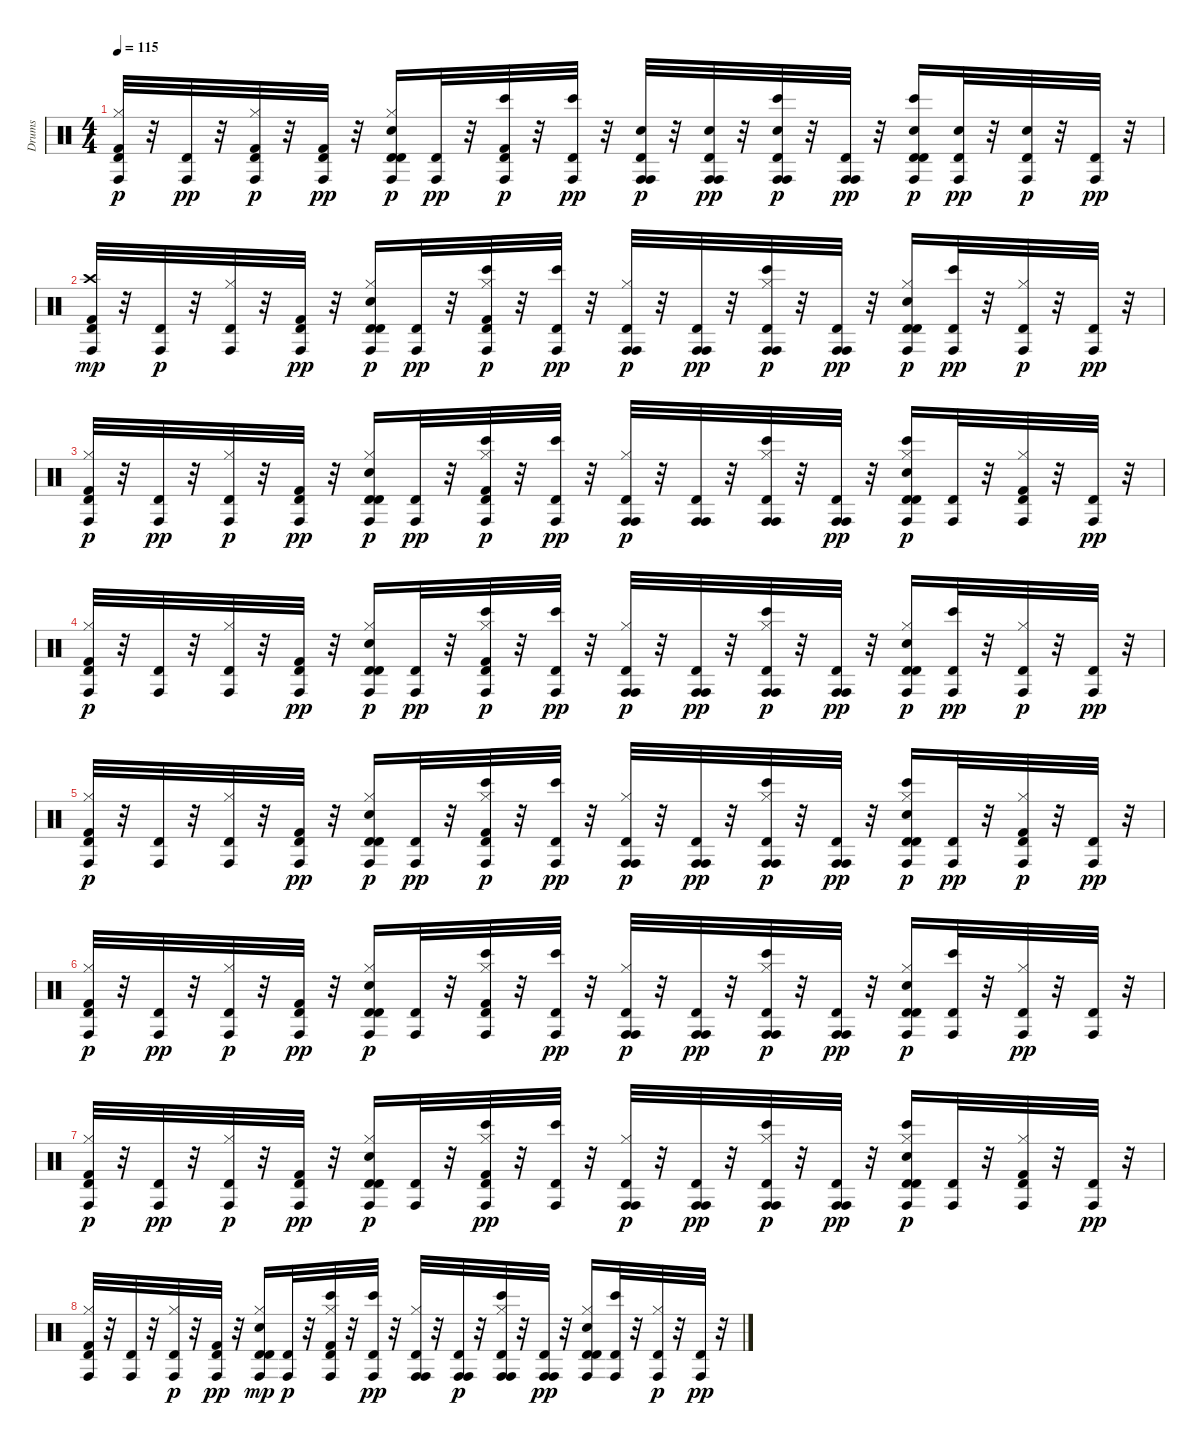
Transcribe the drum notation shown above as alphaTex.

\track ("Drums" "Drums") {instrument percussion}
\staff {score}
\articulation defaults
\ts (4 4)
\tempo 115
\clef neutral
\ks c
("Conga high (hit)" "Hi-Hat (closed)" "Kick (hit) 2" "Timbale high (hit)").32{dy p} r.32 ("Conga high (hit)" "Timbale high (hit)").32{dy pp} r.32 ("Conga high (hit)" "Kick (hit) 2" "Hi-Hat (closed)" "Timbale high (hit)").32{dy p} r.32 ("Conga high (hit)" "Kick (hit) 2" "Timbale high (hit)").32{dy pp} r.32 ("Conga high (hit)" "Timbale high (hit)" "Hi-Hat (closed)" "Electric Snare (hit)" "Timbale high (hit)").16{dy p} ("Conga high (hit)" "Timbale high (hit)").32{dy pp} r.32 ("Conga high (hit)" "Bongo High (hit)" "Kick (hit) 2" "Timbale high (hit)").32{dy p} r.32 ("Conga high (hit)" "Bongo High (hit)" "Timbale high (hit)").32{dy pp} r.32 ("Conga high (hit)" "Conga high (hit)" "Electric Snare (hit)" "Timbale high (hit)").32{dy p} r.32 ("Conga high (hit)" "Conga high (hit)" "Electric Snare (hit)" "Timbale high (hit)").32{dy pp} r.32 ("Conga high (hit)" "Conga high (hit)" "Bongo High (hit)" "Electric Snare (hit)" "Timbale high (hit)").32{dy p} r.32 ("Conga high (hit)" "Conga high (hit)" "Timbale high (hit)").32{dy pp} r.32 ("Conga high (hit)" "Bongo High (hit)" "Timbale high (hit)" "Electric Snare (hit)" "Timbale high (hit)").16{dy p} ("Conga high (hit)" "Electric Snare (hit)" "Timbale high (hit)").32{dy pp} r.32 ("Conga high (hit)" "Electric Snare (hit)" "Timbale high (hit)").32{dy p} r.32 ("Conga high (hit)" "Timbale high (hit)").32{dy pp} r.32 |
("Conga high (hit)" "Crash high (hit)" "Kick (hit) 2" "Timbale high (hit)").32{dy mp} r.32 ("Conga high (hit)" "Timbale high (hit)").32{dy p} r.32 ("Conga high (hit)" "Hi-Hat (closed)" "Timbale high (hit)").32 r.32 ("Conga high (hit)" "Kick (hit) 2" "Timbale high (hit)").32{dy pp} r.32 ("Conga high (hit)" "Timbale high (hit)" "Hi-Hat (closed)" "Electric Snare (hit)" "Timbale high (hit)").16{dy p} ("Conga high (hit)" "Timbale high (hit)").32{dy pp} r.32 ("Conga high (hit)" "Bongo High (hit)" "Hi-Hat (closed)" "Kick (hit) 2" "Timbale high (hit)").32{dy p} r.32 ("Conga high (hit)" "Bongo High (hit)" "Timbale high (hit)").32{dy pp} r.32 ("Conga high (hit)" "Conga high (hit)" "Hi-Hat (closed)" "Timbale high (hit)").32{dy p} r.32 ("Conga high (hit)" "Conga high (hit)" "Timbale high (hit)").32{dy pp} r.32 ("Conga high (hit)" "Conga high (hit)" "Bongo High (hit)" "Hi-Hat (closed)" "Timbale high (hit)").32{dy p} r.32 ("Conga high (hit)" "Conga high (hit)" "Timbale high (hit)").32{dy pp} r.32 ("Conga high (hit)" "Timbale high (hit)" "Hi-Hat (closed)" "Electric Snare (hit)" "Timbale high (hit)").16{dy p} ("Conga high (hit)" "Bongo High (hit)" "Timbale high (hit)").32{dy pp} r.32 ("Conga high (hit)" "Hi-Hat (closed)" "Timbale high (hit)").32{dy p} r.32 ("Conga high (hit)" "Timbale high (hit)").32{dy pp} r.32 |
("Conga high (hit)" "Hi-Hat (closed)" "Kick (hit) 2" "Timbale high (hit)").32{dy p} r.32 ("Conga high (hit)" "Timbale high (hit)").32{dy pp} r.32 ("Conga high (hit)" "Hi-Hat (closed)" "Timbale high (hit)").32{dy p} r.32 ("Conga high (hit)" "Kick (hit) 2" "Timbale high (hit)").32{dy pp} r.32 ("Conga high (hit)" "Timbale high (hit)" "Hi-Hat (closed)" "Electric Snare (hit)" "Timbale high (hit)").16{dy p} ("Conga high (hit)" "Timbale high (hit)").32{dy pp} r.32 ("Conga high (hit)" "Bongo High (hit)" "Hi-Hat (closed)" "Kick (hit) 2" "Timbale high (hit)").32{dy p} r.32 ("Conga high (hit)" "Bongo High (hit)" "Timbale high (hit)").32{dy pp} r.32 ("Conga high (hit)" "Conga high (hit)" "Hi-Hat (closed)" "Timbale high (hit)").32{dy p} r.32 ("Conga high (hit)" "Conga high (hit)" "Timbale high (hit)").32 r.32 ("Conga high (hit)" "Conga high (hit)" "Bongo High (hit)" "Hi-Hat (closed)" "Timbale high (hit)").32 r.32 ("Conga high (hit)" "Conga high (hit)" "Timbale high (hit)").32{dy pp} r.32 ("Conga high (hit)" "Bongo High (hit)" "Timbale high (hit)" "Hi-Hat (closed)" "Electric Snare (hit)" "Timbale high (hit)").16{dy p} ("Conga high (hit)" "Timbale high (hit)").32 r.32 ("Conga high (hit)" "Kick (hit) 2" "Hi-Hat (closed)" "Timbale high (hit)").32 r.32 ("Conga high (hit)" "Timbale high (hit)").32{dy pp} r.32 |
("Conga high (hit)" "Hi-Hat (closed)" "Kick (hit) 2" "Timbale high (hit)").32{dy p} r.32 ("Conga high (hit)" "Timbale high (hit)").32 r.32 ("Conga high (hit)" "Hi-Hat (closed)" "Timbale high (hit)").32 r.32 ("Conga high (hit)" "Kick (hit) 2" "Timbale high (hit)").32{dy pp} r.32 ("Conga high (hit)" "Timbale high (hit)" "Hi-Hat (closed)" "Electric Snare (hit)" "Timbale high (hit)").16{dy p} ("Conga high (hit)" "Timbale high (hit)").32{dy pp} r.32 ("Conga high (hit)" "Bongo High (hit)" "Hi-Hat (closed)" "Kick (hit) 2" "Timbale high (hit)").32{dy p} r.32 ("Conga high (hit)" "Bongo High (hit)" "Timbale high (hit)").32{dy pp} r.32 ("Conga high (hit)" "Conga high (hit)" "Hi-Hat (closed)" "Timbale high (hit)").32{dy p} r.32 ("Conga high (hit)" "Conga high (hit)" "Timbale high (hit)").32{dy pp} r.32 ("Conga high (hit)" "Conga high (hit)" "Bongo High (hit)" "Hi-Hat (closed)" "Timbale high (hit)").32{dy p} r.32 ("Conga high (hit)" "Conga high (hit)" "Timbale high (hit)").32{dy pp} r.32 ("Conga high (hit)" "Timbale high (hit)" "Hi-Hat (closed)" "Electric Snare (hit)" "Timbale high (hit)").16{dy p} ("Conga high (hit)" "Bongo High (hit)" "Timbale high (hit)").32{dy pp} r.32 ("Conga high (hit)" "Hi-Hat (closed)" "Timbale high (hit)").32{dy p} r.32 ("Conga high (hit)" "Timbale high (hit)").32{dy pp} r.32 |
("Conga high (hit)" "Hi-Hat (closed)" "Kick (hit) 2" "Timbale high (hit)").32{dy p} r.32 ("Conga high (hit)" "Timbale high (hit)").32 r.32 ("Conga high (hit)" "Hi-Hat (closed)" "Timbale high (hit)").32 r.32 ("Conga high (hit)" "Kick (hit) 2" "Timbale high (hit)").32{dy pp} r.32 ("Conga high (hit)" "Timbale high (hit)" "Hi-Hat (closed)" "Electric Snare (hit)" "Timbale high (hit)").16{dy p} ("Conga high (hit)" "Timbale high (hit)").32{dy pp} r.32 ("Conga high (hit)" "Bongo High (hit)" "Hi-Hat (closed)" "Kick (hit) 2" "Timbale high (hit)").32{dy p} r.32 ("Conga high (hit)" "Bongo High (hit)" "Timbale high (hit)").32{dy pp} r.32 ("Conga high (hit)" "Conga high (hit)" "Hi-Hat (closed)" "Timbale high (hit)").32{dy p} r.32 ("Conga high (hit)" "Conga high (hit)" "Timbale high (hit)").32{dy pp} r.32 ("Conga high (hit)" "Conga high (hit)" "Bongo High (hit)" "Hi-Hat (closed)" "Timbale high (hit)").32{dy p} r.32 ("Conga high (hit)" "Conga high (hit)" "Timbale high (hit)").32{dy pp} r.32 ("Conga high (hit)" "Bongo High (hit)" "Timbale high (hit)" "Hi-Hat (closed)" "Electric Snare (hit)" "Timbale high (hit)").16{dy p} ("Conga high (hit)" "Timbale high (hit)").32{dy pp} r.32 ("Conga high (hit)" "Kick (hit) 2" "Hi-Hat (closed)" "Timbale high (hit)").32{dy p} r.32 ("Conga high (hit)" "Timbale high (hit)").32{dy pp} r.32 |
("Conga high (hit)" "Hi-Hat (closed)" "Kick (hit) 2" "Timbale high (hit)").32{dy p} r.32 ("Conga high (hit)" "Timbale high (hit)").32{dy pp} r.32 ("Conga high (hit)" "Hi-Hat (closed)" "Timbale high (hit)").32{dy p} r.32 ("Conga high (hit)" "Kick (hit) 2" "Timbale high (hit)").32{dy pp} r.32 ("Conga high (hit)" "Timbale high (hit)" "Hi-Hat (closed)" "Electric Snare (hit)" "Timbale high (hit)").16{dy p} ("Conga high (hit)" "Timbale high (hit)").32 r.32 ("Conga high (hit)" "Bongo High (hit)" "Hi-Hat (closed)" "Kick (hit) 2" "Timbale high (hit)").32 r.32 ("Conga high (hit)" "Bongo High (hit)" "Timbale high (hit)").32{dy pp} r.32 ("Conga high (hit)" "Conga high (hit)" "Hi-Hat (closed)" "Timbale high (hit)").32{dy p} r.32 ("Conga high (hit)" "Conga high (hit)" "Timbale high (hit)").32{dy pp} r.32 ("Conga high (hit)" "Conga high (hit)" "Bongo High (hit)" "Hi-Hat (closed)" "Timbale high (hit)").32{dy p} r.32 ("Conga high (hit)" "Conga high (hit)" "Timbale high (hit)").32{dy pp} r.32 ("Conga high (hit)" "Timbale high (hit)" "Hi-Hat (closed)" "Electric Snare (hit)" "Timbale high (hit)").16{dy p} ("Conga high (hit)" "Bongo High (hit)" "Timbale high (hit)").32 r.32 ("Conga high (hit)" "Hi-Hat (closed)" "Timbale high (hit)").32{dy pp} r.32 ("Conga high (hit)" "Timbale high (hit)").32 r.32 |
("Conga high (hit)" "Hi-Hat (closed)" "Kick (hit) 2" "Timbale high (hit)").32{dy p} r.32 ("Conga high (hit)" "Timbale high (hit)").32{dy pp} r.32 ("Conga high (hit)" "Hi-Hat (closed)" "Timbale high (hit)").32{dy p} r.32 ("Conga high (hit)" "Kick (hit) 2" "Timbale high (hit)").32{dy pp} r.32 ("Conga high (hit)" "Timbale high (hit)" "Hi-Hat (closed)" "Electric Snare (hit)" "Timbale high (hit)").16{dy p} ("Conga high (hit)" "Timbale high (hit)").32 r.32 ("Conga high (hit)" "Bongo High (hit)" "Hi-Hat (closed)" "Kick (hit) 2" "Timbale high (hit)").32{dy pp} r.32 ("Conga high (hit)" "Bongo High (hit)" "Timbale high (hit)").32 r.32 ("Conga high (hit)" "Conga high (hit)" "Hi-Hat (closed)" "Timbale high (hit)").32{dy p} r.32 ("Conga high (hit)" "Conga high (hit)" "Timbale high (hit)").32{dy pp} r.32 ("Conga high (hit)" "Conga high (hit)" "Bongo High (hit)" "Hi-Hat (closed)" "Timbale high (hit)").32{dy p} r.32 ("Conga high (hit)" "Conga high (hit)" "Timbale high (hit)").32{dy pp} r.32 ("Conga high (hit)" "Bongo High (hit)" "Timbale high (hit)" "Hi-Hat (closed)" "Electric Snare (hit)" "Timbale high (hit)").16{dy p} ("Conga high (hit)" "Timbale high (hit)").32 r.32 ("Conga high (hit)" "Kick (hit) 2" "Hi-Hat (closed)" "Timbale high (hit)").32 r.32 ("Conga high (hit)" "Timbale high (hit)").32{dy pp} r.32 |
("Conga high (hit)" "Hi-Hat (closed)" "Kick (hit) 2" "Timbale high (hit)").32 r.32 ("Conga high (hit)" "Timbale high (hit)").32 r.32 ("Conga high (hit)" "Hi-Hat (closed)" "Timbale high (hit)").32{dy p} r.32 ("Conga high (hit)" "Kick (hit) 2" "Timbale high (hit)").32{dy pp} r.32 ("Conga high (hit)" "Timbale high (hit)" "Hi-Hat (closed)" "Electric Snare (hit)" "Timbale high (hit)").16{dy mp} ("Conga high (hit)" "Timbale high (hit)").32{dy p} r.32 ("Conga high (hit)" "Bongo High (hit)" "Hi-Hat (closed)" "Kick (hit) 2" "Timbale high (hit)").32 r.32 ("Conga high (hit)" "Bongo High (hit)" "Timbale high (hit)").32{dy pp} r.32 ("Conga high (hit)" "Conga high (hit)" "Hi-Hat (closed)" "Timbale high (hit)").32 r.32 ("Conga high (hit)" "Conga high (hit)" "Timbale high (hit)").32{dy p} r.32 ("Conga high (hit)" "Conga high (hit)" "Bongo High (hit)" "Hi-Hat (closed)" "Timbale high (hit)").32 r.32 ("Conga high (hit)" "Conga high (hit)" "Timbale high (hit)").32{dy pp} r.32 ("Conga high (hit)" "Timbale high (hit)" "Hi-Hat (closed)" "Electric Snare (hit)" "Timbale high (hit)").16 ("Conga high (hit)" "Bongo High (hit)" "Timbale high (hit)").32 r.32 ("Conga high (hit)" "Hi-Hat (closed)" "Timbale high (hit)").32{dy p} r.32 ("Conga high (hit)" "Timbale high (hit)").32{dy pp} r.32
